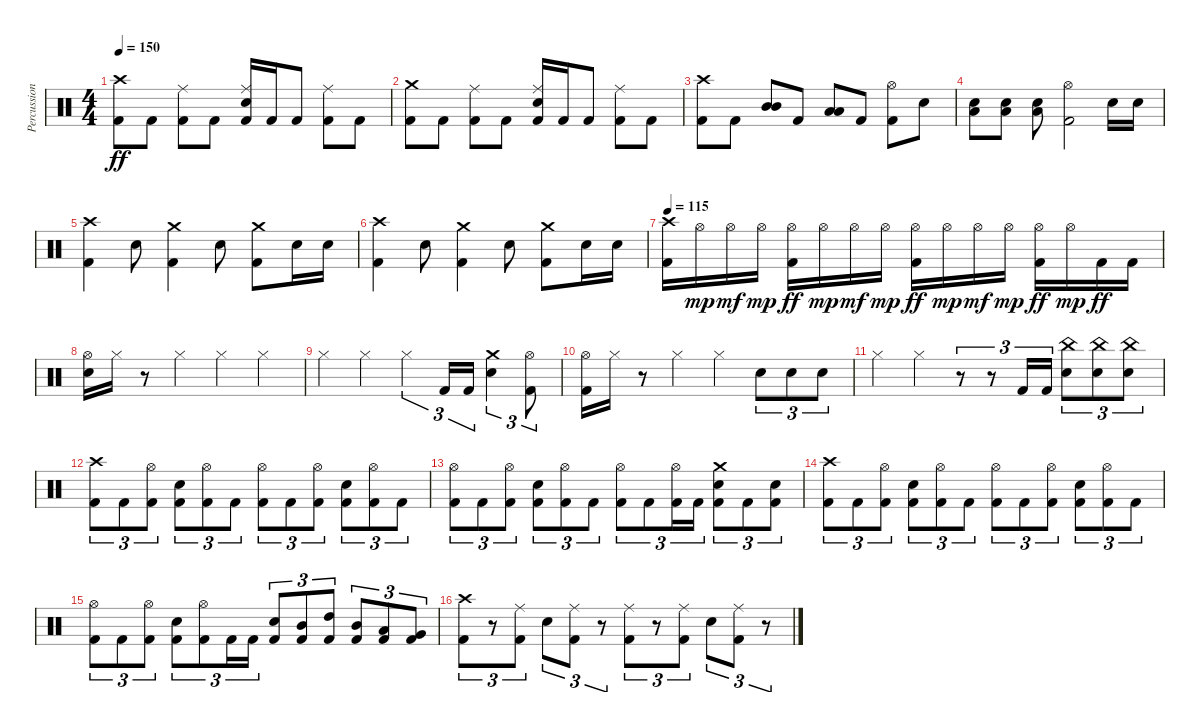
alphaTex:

\track ("Percussion" "Percussion") {instrument percussion}
\staff {score}
\articulation defaults
\ts (4 4)
\tempo 150
\clef neutral
\ks c
("Crash high (hit)" "Kick (hit) 2").8{dy ff} "Kick (hit) 2".8 ("Ride (middle)" "Kick (hit) 2").8 "Kick (hit) 2".8 ("Ride (middle)" "Snare (hit) 2" "Kick (hit) 2").16 "Kick (hit) 2".16 "Kick (hit) 2".8 ("Ride (middle)" "Kick (hit) 2").8 "Kick (hit) 2".8 |
("Crash medium (hit)" "Kick (hit) 2").8 "Kick (hit) 2".8 ("Ride (middle)" "Kick (hit) 2").8 "Kick (hit) 2".8 ("Ride (middle)" "Snare (hit) 2" "Kick (hit) 2").16 "Kick (hit) 2".16 "Kick (hit) 2".8 ("Ride (middle)" "Kick (hit) 2").8 "Kick (hit) 2".8 |
("Crash high (hit)" "Kick (hit) 2").8 "Kick (hit) 2".8 ("Mid Tom (hit)" "Mid Tom (hit)").8 "Kick (hit) 2".8 ("Low Tom (hit)" "Low Tom (hit)").8 "Kick (hit) 2".8 ("Hi-Hat (open)" "Kick (hit) 2").8 "Snare (hit) 2".8 |
("Low Tom (hit)" "Snare (hit) 2").8 ("Low Tom (hit)" "Snare (hit) 2").8 ("Low Tom (hit)" "Snare (hit) 2").8 ("Hi-Hat (open)" "Kick (hit) 2").2 "Snare (hit) 2".16 "Snare (hit) 2".16 |
("Crash high (hit)" "Kick (hit) 2").4 "Snare (hit) 2".8 ("Crash medium (hit)" "Kick (hit) 2").4 "Snare (hit) 2".8 ("Crash medium (hit)" "Kick (hit) 2").8 "Snare (hit) 2".16 "Snare (hit) 2".16 |
("Crash high (hit)" "Kick (hit) 2").4 "Snare (hit) 2".8 ("Crash medium (hit)" "Kick (hit) 2").4 "Snare (hit) 2".8 ("Crash medium (hit)" "Kick (hit) 2").8 "Snare (hit) 2".16 "Snare (hit) 2".16 |
\tempo 115
("Crash high (hit)" "Kick (hit) 2").16 "Hi-Hat (open)".16{dy mp} "Hi-Hat (open)".16{dy mf} "Hi-Hat (open)".16{dy mp} ("Hi-Hat (open)" "Kick (hit) 2").16{dy ff} "Hi-Hat (open)".16{dy mp} "Hi-Hat (open)".16{dy mf} "Hi-Hat (open)".16{dy mp} ("Hi-Hat (open)" "Kick (hit) 2").16{dy ff} "Hi-Hat (open)".16{dy mp} "Hi-Hat (open)".16{dy mf} "Hi-Hat (open)".16{dy mp} ("Hi-Hat (open)" "Kick (hit) 2").16{dy ff} "Hi-Hat (open)".16{dy mp} "Kick (hit) 2".16{dy ff} "Kick (hit) 2".16 |
("Hi-Hat (open)" "Snare (hit) 2").16 "Hi-Hat (closed)".16 r.8 "Hi-Hat (closed)".4 "Hi-Hat (closed)".4 "Hi-Hat (closed)".4 |
"Hi-Hat (closed)".4 "Hi-Hat (closed)".4 "Hi-Hat (closed)".4{tu (3 2)} "Kick (hit) 2".16{tu (3 2)} "Kick (hit) 2".16{tu (3 2)} ("Crash medium (hit)" "Snare (hit) 2").4{tu (3 2)} ("Hi-Hat (open)" "Kick (hit) 2").8{tu (3 2)} |
("Hi-Hat (open)" "Kick (hit) 2").16 "Hi-Hat (closed)".16 r.8 "Hi-Hat (closed)".4 "Hi-Hat (closed)".4 "Snare (hit) 2".8{tu (3 2)} "Snare (hit) 2".8{tu (3 2)} "Snare (hit) 2".8{tu (3 2)} |
"Hi-Hat (closed)".4 "Hi-Hat (closed)".4 r.8{tu (3 2)} r.8{tu (3 2)} "Kick (hit) 2".16{tu (3 2)} "Kick (hit) 2".16{tu (3 2)} ("China (hit)" "Snare (hit) 2").8{tu (3 2)} ("China (hit)" "Snare (hit) 2").8{tu (3 2)} ("China (hit)" "Snare (hit) 2").8{tu (3 2)} |
("Crash high (hit)" "Kick (hit) 2").8{tu (3 2)} "Kick (hit) 2".8{tu (3 2)} ("Hi-Hat (open)" "Kick (hit) 2").8{tu (3 2)} ("Snare (hit) 2" "Kick (hit) 2").8{tu (3 2)} ("Hi-Hat (open)" "Kick (hit) 2").8{tu (3 2)} "Kick (hit) 2".8{tu (3 2)} ("Hi-Hat (open)" "Kick (hit) 2").8{tu (3 2)} "Kick (hit) 2".8{tu (3 2)} ("Hi-Hat (open)" "Kick (hit) 2").8{tu (3 2)} ("Snare (hit) 2" "Kick (hit) 2").8{tu (3 2)} ("Hi-Hat (open)" "Kick (hit) 2").8{tu (3 2)} "Kick (hit) 2".8{tu (3 2)} |
("Hi-Hat (open)" "Kick (hit) 2").8{tu (3 2)} "Kick (hit) 2".8{tu (3 2)} ("Hi-Hat (open)" "Kick (hit) 2").8{tu (3 2)} ("Snare (hit) 2" "Kick (hit) 2").8{tu (3 2)} ("Hi-Hat (open)" "Kick (hit) 2").8{tu (3 2)} "Kick (hit) 2".8{tu (3 2)} ("Hi-Hat (open)" "Kick (hit) 2").8{tu (3 2)} "Kick (hit) 2".8{tu (3 2)} ("Hi-Hat (open)" "Kick (hit) 2").16{tu (3 2)} "Kick (hit) 2".16{tu (3 2)} ("Crash medium (hit)" "Snare (hit) 2" "Kick (hit) 2").8{tu (3 2)} "Kick (hit) 2".8{tu (3 2)} ("Snare (hit) 2" "Kick (hit) 2").8{tu (3 2)} |
("Crash high (hit)" "Kick (hit) 2").8{tu (3 2)} "Kick (hit) 2".8{tu (3 2)} ("Hi-Hat (open)" "Kick (hit) 2").8{tu (3 2)} ("Snare (hit) 2" "Kick (hit) 2").8{tu (3 2)} ("Hi-Hat (open)" "Kick (hit) 2").8{tu (3 2)} "Kick (hit) 2".8{tu (3 2)} ("Hi-Hat (open)" "Kick (hit) 2").8{tu (3 2)} "Kick (hit) 2".8{tu (3 2)} ("Hi-Hat (open)" "Kick (hit) 2").8{tu (3 2)} ("Snare (hit) 2" "Kick (hit) 2").8{tu (3 2)} ("Hi-Hat (open)" "Kick (hit) 2").8{tu (3 2)} "Kick (hit) 2".8{tu (3 2)} |
("Hi-Hat (open)" "Kick (hit) 2").8{tu (3 2)} "Kick (hit) 2".8{tu (3 2)} ("Hi-Hat (open)" "Kick (hit) 2").8{tu (3 2)} ("Snare (hit) 2" "Kick (hit) 2").8{tu (3 2)} ("Hi-Hat (open)" "Kick (hit) 2").8{tu (3 2)} "Kick (hit) 2".16{tu (3 2)} "Kick (hit) 2".16{tu (3 2)} ("Snare (hit) 2" "Kick (hit) 2").8{tu (3 2)} ("Mid Tom (hit)" "Kick (hit) 2").8{tu (3 2)} ("High Tom (hit)" "Kick (hit) 2").8{tu (3 2)} ("Mid Tom (hit)" "Kick (hit) 2").8{tu (3 2)} ("Low Tom (hit)" "Kick (hit) 2").8{tu (3 2)} ("Very Low Tom (hit)" "Kick (hit) 2").8{tu (3 2)} |
("Crash high (hit)" "Kick (hit) 2").8{tu (3 2)} r.8{tu (3 2)} ("Ride (middle)" "Kick (hit) 2").8{tu (3 2)} "Snare (hit) 2".8{tu (3 2)} ("Ride (middle)" "Kick (hit) 2").8{tu (3 2)} r.8{tu (3 2)} ("Ride (middle)" "Kick (hit) 2").8{tu (3 2)} r.8{tu (3 2)} ("Ride (middle)" "Kick (hit) 2").8{tu (3 2)} "Snare (hit) 2".8{tu (3 2)} ("Ride (middle)" "Kick (hit) 2").8{tu (3 2)} r.8{tu (3 2)}
